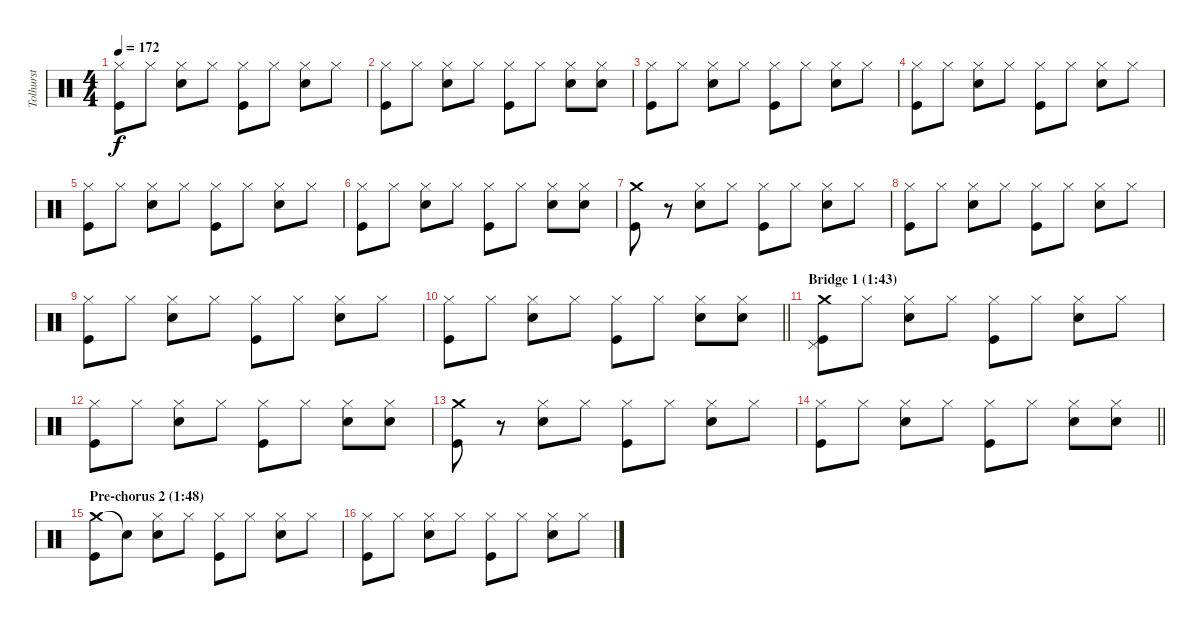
\track ("Tolhurst" "Tolhurst") {instrument percussion}
\staff {score}
\articulation defaults
\ts (4 4)
\tempo 172
\clef neutral
\ks c
("Hi-Hat (closed)" "Kick (hit)").8{dy f} "Hi-Hat (closed)".8 ("Hi-Hat (closed)" "Snare (hit) 2").8 "Hi-Hat (closed)".8 ("Hi-Hat (closed)" "Kick (hit)").8 "Hi-Hat (closed)".8 ("Hi-Hat (closed)" "Snare (hit) 2").8 "Hi-Hat (closed)".8 |
("Hi-Hat (closed)" "Kick (hit)").8 "Hi-Hat (closed)".8 ("Hi-Hat (closed)" "Snare (hit) 2").8 "Hi-Hat (closed)".8 ("Hi-Hat (closed)" "Kick (hit)").8 "Hi-Hat (closed)".8 ("Hi-Hat (closed)" "Snare (hit) 2").8 ("Hi-Hat (closed)" "Snare (hit) 2").8 |
("Hi-Hat (closed)" "Kick (hit)").8 "Hi-Hat (closed)".8 ("Hi-Hat (closed)" "Snare (hit) 2").8 "Hi-Hat (closed)".8 ("Hi-Hat (closed)" "Kick (hit)").8 "Hi-Hat (closed)".8 ("Hi-Hat (closed)" "Snare (hit) 2").8 "Hi-Hat (closed)".8 |
("Hi-Hat (closed)" "Kick (hit)").8 "Hi-Hat (closed)".8 ("Hi-Hat (closed)" "Snare (hit) 2").8 "Hi-Hat (closed)".8 ("Hi-Hat (closed)" "Kick (hit)").8 "Hi-Hat (closed)".8 ("Hi-Hat (closed)" "Snare (hit) 2").8 "Hi-Hat (closed)".8 |
("Hi-Hat (closed)" "Kick (hit)").8 "Hi-Hat (closed)".8 ("Hi-Hat (closed)" "Snare (hit) 2").8 "Hi-Hat (closed)".8 ("Hi-Hat (closed)" "Kick (hit)").8 "Hi-Hat (closed)".8 ("Hi-Hat (closed)" "Snare (hit) 2").8 "Hi-Hat (closed)".8 |
("Hi-Hat (closed)" "Kick (hit)").8 "Hi-Hat (closed)".8 ("Hi-Hat (closed)" "Snare (hit) 2").8 "Hi-Hat (closed)".8 ("Hi-Hat (closed)" "Kick (hit)").8 "Hi-Hat (closed)".8 ("Hi-Hat (closed)" "Snare (hit) 2").8 ("Hi-Hat (closed)" "Snare (hit) 2").8 |
("Crash medium (hit)" "Kick (hit)").8 r.8 ("Hi-Hat (closed)" "Snare (hit) 2").8 "Hi-Hat (closed)".8 ("Hi-Hat (closed)" "Kick (hit)").8 "Hi-Hat (closed)".8 ("Hi-Hat (closed)" "Snare (hit) 2").8 "Hi-Hat (closed)".8 |
("Hi-Hat (closed)" "Kick (hit)").8 "Hi-Hat (closed)".8 ("Hi-Hat (closed)" "Snare (hit) 2").8 "Hi-Hat (closed)".8 ("Hi-Hat (closed)" "Kick (hit)").8 "Hi-Hat (closed)".8 ("Hi-Hat (closed)" "Snare (hit) 2").8 "Hi-Hat (closed)".8 |
("Hi-Hat (closed)" "Kick (hit)").8 "Hi-Hat (closed)".8 ("Hi-Hat (closed)" "Snare (hit) 2").8 "Hi-Hat (closed)".8 ("Hi-Hat (closed)" "Kick (hit)").8 "Hi-Hat (closed)".8 ("Hi-Hat (closed)" "Snare (hit) 2").8 "Hi-Hat (closed)".8 |
\barLineRight lightlight
("Hi-Hat (closed)" "Kick (hit)").8 "Hi-Hat (closed)".8 ("Hi-Hat (closed)" "Snare (hit) 2").8 "Hi-Hat (closed)".8 ("Hi-Hat (closed)" "Kick (hit)").8 "Hi-Hat (closed)".8 ("Hi-Hat (closed)" "Snare (hit) 2").8 ("Hi-Hat (closed)" "Snare (hit) 2").8 |
\section ("" "Bridge 1 (1:43)")
("Crash medium (hit)" "Pedal Hi-Hat (hit)" "Kick (hit)").8 "Hi-Hat (closed)".8 ("Hi-Hat (closed)" "Snare (hit) 2").8 "Hi-Hat (closed)".8 ("Hi-Hat (closed)" "Kick (hit)").8 "Hi-Hat (closed)".8 ("Hi-Hat (closed)" "Snare (hit) 2").8 "Hi-Hat (closed)".8 |
("Hi-Hat (closed)" "Kick (hit)").8 "Hi-Hat (closed)".8 ("Hi-Hat (closed)" "Snare (hit) 2").8 "Hi-Hat (closed)".8 ("Hi-Hat (closed)" "Kick (hit)").8 "Hi-Hat (closed)".8 ("Hi-Hat (closed)" "Snare (hit) 2").8 ("Hi-Hat (closed)" "Snare (hit) 2").8 |
("Crash medium (hit)" "Kick (hit)").8 r.8 ("Hi-Hat (closed)" "Snare (hit) 2").8 "Hi-Hat (closed)".8 ("Hi-Hat (closed)" "Kick (hit)").8 "Hi-Hat (closed)".8 ("Hi-Hat (closed)" "Snare (hit) 2").8 "Hi-Hat (closed)".8 |
\barLineRight lightlight
("Hi-Hat (closed)" "Kick (hit)").8 "Hi-Hat (closed)".8 ("Hi-Hat (closed)" "Snare (hit) 2").8 "Hi-Hat (closed)".8 ("Hi-Hat (closed)" "Kick (hit)").8 "Hi-Hat (closed)".8 ("Hi-Hat (closed)" "Snare (hit) 2").8 ("Hi-Hat (closed)" "Snare (hit) 2").8 |
\section ("" "Pre-chorus 2 (1:48)")
("Crash medium (hit)" "Kick (hit)").8 "Snare (hit)"{t}.8 ("Hi-Hat (closed)" "Snare (hit) 2").8 "Hi-Hat (closed)".8 ("Hi-Hat (closed)" "Kick (hit)").8 "Hi-Hat (closed)".8 ("Hi-Hat (closed)" "Snare (hit) 2").8 "Hi-Hat (closed)".8 |
("Hi-Hat (closed)" "Kick (hit)").8 "Hi-Hat (closed)".8 ("Hi-Hat (closed)" "Snare (hit) 2").8 "Hi-Hat (closed)".8 ("Hi-Hat (closed)" "Kick (hit)").8 "Hi-Hat (closed)".8 ("Hi-Hat (closed)" "Snare (hit) 2").8 "Hi-Hat (closed)".8
